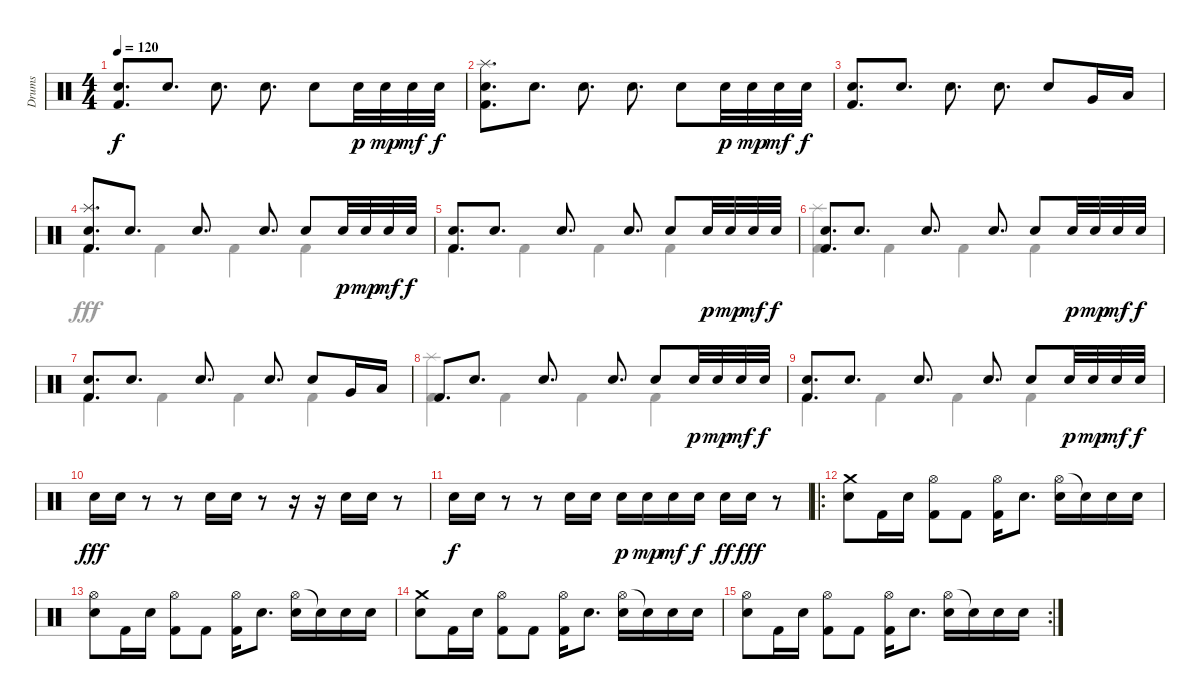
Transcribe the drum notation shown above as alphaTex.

\track ("Drums" "Drums") {instrument percussion}
\staff {score}
\articulation defaults
\voice
\ts (4 4)
\tempo 120
\clef neutral
\ks c
("Electric Snare (hit)" "Kick (hit) 2").8{d dy f} "Electric Snare (hit)".8{d} "Electric Snare (hit)".8{d} "Electric Snare (hit)".8{d} "Electric Snare (hit)".8 "Electric Snare (hit)".32{dy p} "Electric Snare (hit)".32{dy mp} "Electric Snare (hit)".32{dy mf} "Electric Snare (hit)".32{dy f} |
("Splash (hit)" "Electric Snare (hit)" "Kick (hit) 2").8{d} "Electric Snare (hit)".8{d} "Electric Snare (hit)".8{d} "Electric Snare (hit)".8{d} "Electric Snare (hit)".8 "Electric Snare (hit)".32{dy p} "Electric Snare (hit)".32{dy mp} "Electric Snare (hit)".32{dy mf} "Electric Snare (hit)".32{dy f} |
("Electric Snare (hit)" "Kick (hit) 2").8{d} "Electric Snare (hit)".8{d} "Electric Snare (hit)".8{d} "Electric Snare (hit)".8{d} "Electric Snare (hit)".8 "Very Low Tom (hit)".16 "Low Floor Tom (hit)".16 |
("Splash (hit)" "Electric Snare (hit)" "Kick (hit) 2").8{d} "Electric Snare (hit)".8{d} "Electric Snare (hit)".8{d} "Electric Snare (hit)".8{d} "Electric Snare (hit)".8 "Electric Snare (hit)".32{dy p} "Electric Snare (hit)".32{dy mp} "Electric Snare (hit)".32{dy mf} "Electric Snare (hit)".32{dy f} |
("Electric Snare (hit)" "Kick (hit) 2").8{d} "Electric Snare (hit)".8{d} "Electric Snare (hit)".8{d} "Electric Snare (hit)".8{d} "Electric Snare (hit)".8 "Electric Snare (hit)".32{dy p} "Electric Snare (hit)".32{dy mp} "Electric Snare (hit)".32{dy mf} "Electric Snare (hit)".32{dy f} |
("Electric Snare (hit)" "Kick (hit) 2").8{d} "Electric Snare (hit)".8{d} "Electric Snare (hit)".8{d} "Electric Snare (hit)".8{d} "Electric Snare (hit)".8 "Electric Snare (hit)".32{dy p} "Electric Snare (hit)".32{dy mp} "Electric Snare (hit)".32{dy mf} "Electric Snare (hit)".32{dy f} |
("Electric Snare (hit)" "Kick (hit) 2").8{d} "Electric Snare (hit)".8{d} "Electric Snare (hit)".8{d} "Electric Snare (hit)".8{d} "Electric Snare (hit)".8 "Very Low Tom (hit)".16 "Low Floor Tom (hit)".16 |
"Kick (hit) 2".8{d} "Electric Snare (hit)".8{d} "Electric Snare (hit)".8{d} "Electric Snare (hit)".8{d} "Electric Snare (hit)".8 "Electric Snare (hit)".32{dy p} "Electric Snare (hit)".32{dy mp} "Electric Snare (hit)".32{dy mf} "Electric Snare (hit)".32{dy f} |
("Electric Snare (hit)" "Kick (hit) 2").8{d} "Electric Snare (hit)".8{d} "Electric Snare (hit)".8{d} "Electric Snare (hit)".8{d} "Electric Snare (hit)".8 "Electric Snare (hit)".32{dy p} "Electric Snare (hit)".32{dy mp} "Electric Snare (hit)".32{dy mf} "Electric Snare (hit)".32{dy f} |
"Electric Snare (hit)".16{dy fff} "Electric Snare (hit)".16 r.8 r.8 "Electric Snare (hit)".16 "Electric Snare (hit)".16 r.8 r.16 r.16 "Electric Snare (hit)".16 "Electric Snare (hit)".16 r.8 |
"Electric Snare (hit)".16{dy f} "Electric Snare (hit)".16 r.8 r.8 "Electric Snare (hit)".16 "Electric Snare (hit)".16 "Electric Snare (hit)".16{dy p} "Electric Snare (hit)".16{dy mp} "Electric Snare (hit)".16{dy mf} "Electric Snare (hit)".16{dy f} "Electric Snare (hit)".16{dy ff} "Electric Snare (hit)".16{dy fff} r.8 |
\ro
("Crash medium (hit)" "Electric Snare (hit)").8 "Kick (hit) 2".16 "Electric Snare (hit)".16 ("Hi-Hat (open)" "Kick (hit) 2").8 "Kick (hit) 2".8 ("Hi-Hat (open)" "Kick (hit) 2").16 "Electric Snare (hit)".8{d} ("Hi-Hat (open)" "Electric Snare (hit)").16 "Electric Snare (hit)"{t}.16 "Electric Snare (hit)".16 "Electric Snare (hit)".16 |
("Hi-Hat (open)" "Electric Snare (hit)").8 "Kick (hit) 2".16 "Electric Snare (hit)".16 ("Hi-Hat (open)" "Kick (hit) 2").8 "Kick (hit) 2".8 ("Hi-Hat (open)" "Kick (hit) 2").16 "Electric Snare (hit)".8{d} ("Hi-Hat (open)" "Electric Snare (hit)").16 "Electric Snare (hit)"{t}.16 "Electric Snare (hit)".16 "Electric Snare (hit)".16 |
("Crash medium (hit)" "Electric Snare (hit)").8 "Kick (hit) 2".16 "Electric Snare (hit)".16 ("Hi-Hat (open)" "Kick (hit) 2").8 "Kick (hit) 2".8 ("Hi-Hat (open)" "Kick (hit) 2").16 "Electric Snare (hit)".8{d} ("Hi-Hat (open)" "Electric Snare (hit)").16 "Electric Snare (hit)"{t}.16 "Electric Snare (hit)".16 "Electric Snare (hit)".16 |
\rc 2
("Hi-Hat (open)" "Electric Snare (hit)").8 "Kick (hit) 2".16 "Electric Snare (hit)".16 ("Hi-Hat (open)" "Kick (hit) 2").8 "Kick (hit) 2".8 ("Hi-Hat (open)" "Kick (hit) 2").16 "Electric Snare (hit)".8{d} ("Hi-Hat (open)" "Electric Snare (hit)").16 "Electric Snare (hit)"{t}.16 "Electric Snare (hit)".16 "Electric Snare (hit)".16 |
\voice
\clef neutral
\ottava regular
\simile none
\ks c
|
|
|
"Kick (hit) 2".4 "Kick (hit) 2".4 "Kick (hit) 2".4 "Kick (hit) 2".4 |
"Kick (hit) 2".4 "Kick (hit) 2".4 "Kick (hit) 2".4 "Kick (hit) 2".4 |
("Splash (hit)" "Kick (hit) 2").4 "Kick (hit) 2".4 "Kick (hit) 2".4 "Kick (hit) 2".4 |
"Kick (hit) 2".4 "Kick (hit) 2".4 "Kick (hit) 2".4 "Kick (hit) 2".4 |
("Splash (hit)" "Kick (hit) 2").4 "Kick (hit) 2".4 "Kick (hit) 2".4 "Kick (hit) 2".4 |
"Kick (hit) 2".4 "Kick (hit) 2".4 "Kick (hit) 2".4 "Kick (hit) 2".4 |
|
|
|
|
|
|
